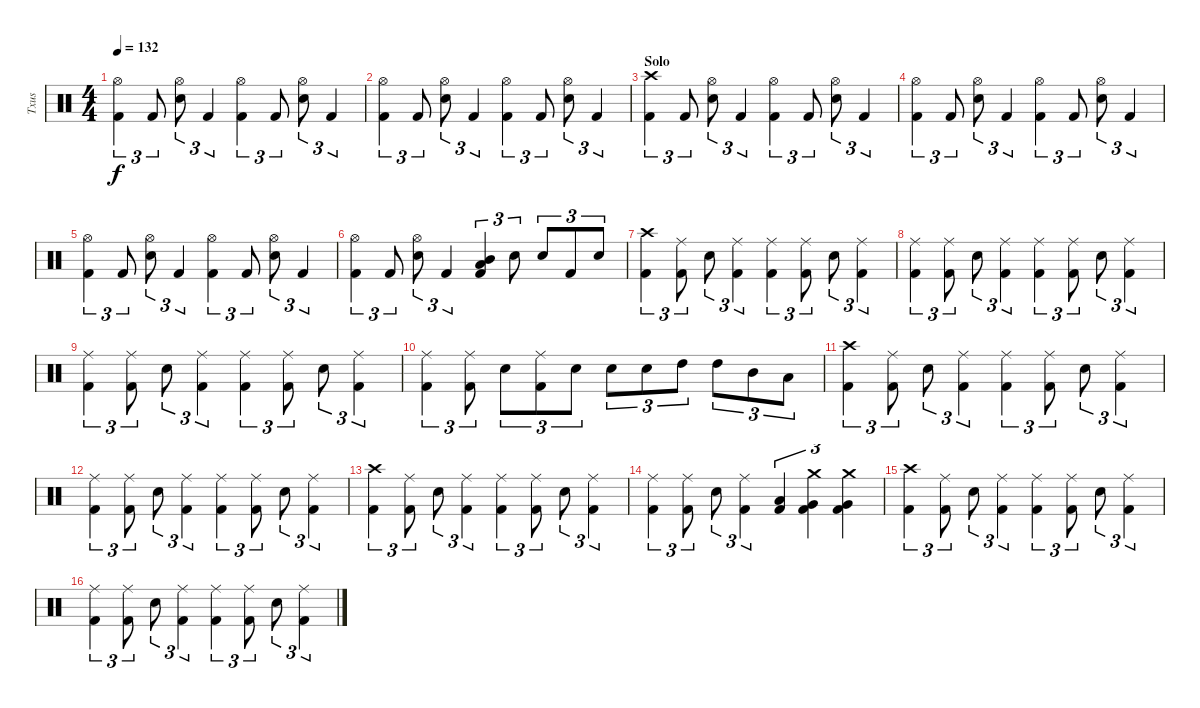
\track ("Txus" "Txus") {instrument percussion}
\staff {score}
\articulation defaults
\ts (4 4)
\tempo 132
\clef neutral
\ks c
("Kick (hit) 2" "Hi-Hat (open)").4{tu (3 2) dy f} "Kick (hit) 2".8{tu (3 2)} ("Electric Snare (hit)" "Hi-Hat (open)").8{tu (3 2)} "Kick (hit) 2".4{tu (3 2)} ("Kick (hit) 2" "Hi-Hat (open)").4{tu (3 2)} "Kick (hit) 2".8{tu (3 2)} ("Electric Snare (hit)" "Hi-Hat (open)").8{tu (3 2)} "Kick (hit) 2".4{tu (3 2)} |
("Kick (hit) 2" "Hi-Hat (open)").4{tu (3 2)} "Kick (hit) 2".8{tu (3 2)} ("Electric Snare (hit)" "Hi-Hat (open)").8{tu (3 2)} "Kick (hit) 2".4{tu (3 2)} ("Kick (hit) 2" "Hi-Hat (open)").4{tu (3 2)} "Kick (hit) 2".8{tu (3 2)} ("Electric Snare (hit)" "Hi-Hat (open)").8{tu (3 2)} "Kick (hit) 2".4{tu (3 2)} |
\section ("" "Solo")
("Kick (hit) 2" "Crash high (hit)").4{tu (3 2)} "Kick (hit) 2".8{tu (3 2)} ("Electric Snare (hit)" "Hi-Hat (open)").8{tu (3 2)} "Kick (hit) 2".4{tu (3 2)} ("Kick (hit) 2" "Hi-Hat (open)").4{tu (3 2)} "Kick (hit) 2".8{tu (3 2)} ("Electric Snare (hit)" "Hi-Hat (open)").8{tu (3 2)} "Kick (hit) 2".4{tu (3 2)} |
("Kick (hit) 2" "Hi-Hat (open)").4{tu (3 2)} "Kick (hit) 2".8{tu (3 2)} ("Electric Snare (hit)" "Hi-Hat (open)").8{tu (3 2)} "Kick (hit) 2".4{tu (3 2)} ("Kick (hit) 2" "Hi-Hat (open)").4{tu (3 2)} "Kick (hit) 2".8{tu (3 2)} ("Electric Snare (hit)" "Hi-Hat (open)").8{tu (3 2)} "Kick (hit) 2".4{tu (3 2)} |
("Kick (hit) 2" "Hi-Hat (open)").4{tu (3 2)} "Kick (hit) 2".8{tu (3 2)} ("Electric Snare (hit)" "Hi-Hat (open)").8{tu (3 2)} "Kick (hit) 2".4{tu (3 2)} ("Kick (hit) 2" "Hi-Hat (open)").4{tu (3 2)} "Kick (hit) 2".8{tu (3 2)} ("Electric Snare (hit)" "Hi-Hat (open)").8{tu (3 2)} "Kick (hit) 2".4{tu (3 2)} |
("Kick (hit) 2" "Hi-Hat (open)").4{tu (3 2)} "Kick (hit) 2".8{tu (3 2)} ("Electric Snare (hit)" "Hi-Hat (open)").8{tu (3 2)} "Kick (hit) 2".4{tu (3 2)} ("Kick (hit) 2" "Mid Tom (hit)" "Low Tom (hit)").4{tu (3 2)} "Electric Snare (hit)".8{tu (3 2)} "Electric Snare (hit)".8{tu (3 2)} "Kick (hit) 2".8{tu (3 2)} "Electric Snare (hit)".8{tu (3 2)} |
("Kick (hit) 2" "Crash high (hit)").4{tu (3 2)} ("Kick (hit) 2" "Ride (middle)").8{tu (3 2)} "Electric Snare (hit)".8{tu (3 2)} ("Kick (hit) 2" "Ride (middle)").4{tu (3 2)} ("Kick (hit) 2" "Ride (middle)").4{tu (3 2)} ("Kick (hit) 2" "Ride (middle)").8{tu (3 2)} "Electric Snare (hit)".8{tu (3 2)} ("Kick (hit) 2" "Ride (middle)").4{tu (3 2)} |
("Kick (hit) 2" "Ride (middle)").4{tu (3 2)} ("Kick (hit) 2" "Ride (middle)").8{tu (3 2)} "Electric Snare (hit)".8{tu (3 2)} ("Kick (hit) 2" "Ride (middle)").4{tu (3 2)} ("Kick (hit) 2" "Ride (middle)").4{tu (3 2)} ("Kick (hit) 2" "Ride (middle)").8{tu (3 2)} "Electric Snare (hit)".8{tu (3 2)} ("Kick (hit) 2" "Ride (middle)").4{tu (3 2)} |
("Kick (hit) 2" "Ride (middle)").4{tu (3 2)} ("Kick (hit) 2" "Ride (middle)").8{tu (3 2)} "Electric Snare (hit)".8{tu (3 2)} ("Kick (hit) 2" "Ride (middle)").4{tu (3 2)} ("Kick (hit) 2" "Ride (middle)").4{tu (3 2)} ("Kick (hit) 2" "Ride (middle)").8{tu (3 2)} "Electric Snare (hit)".8{tu (3 2)} ("Kick (hit) 2" "Ride (middle)").4{tu (3 2)} |
("Kick (hit) 2" "Ride (middle)").4{tu (3 2)} ("Kick (hit) 2" "Ride (middle)").8{tu (3 2)} "Electric Snare (hit)".8{tu (3 2)} ("Kick (hit) 2" "Ride (middle)").8{tu (3 2)} "Electric Snare (hit)".8{tu (3 2)} "Electric Snare (hit)".8{tu (3 2)} "Electric Snare (hit)".8{tu (3 2)} "High Tom (hit)".8{tu (3 2)} "High Tom (hit)".8{tu (3 2)} "Mid Tom (hit)".8{tu (3 2)} "Low Tom (hit)".8{tu (3 2)} |
("Kick (hit) 2" "Crash high (hit)").4{tu (3 2)} ("Kick (hit) 2" "Ride (middle)").8{tu (3 2)} "Electric Snare (hit)".8{tu (3 2)} ("Kick (hit) 2" "Ride (middle)").4{tu (3 2)} ("Kick (hit) 2" "Ride (middle)").4{tu (3 2)} ("Kick (hit) 2" "Ride (middle)").8{tu (3 2)} "Electric Snare (hit)".8{tu (3 2)} ("Kick (hit) 2" "Ride (middle)").4{tu (3 2)} |
("Kick (hit) 2" "Ride (middle)").4{tu (3 2)} ("Kick (hit) 2" "Ride (middle)").8{tu (3 2)} "Electric Snare (hit)".8{tu (3 2)} ("Kick (hit) 2" "Ride (middle)").4{tu (3 2)} ("Kick (hit) 2" "Ride (middle)").4{tu (3 2)} ("Kick (hit) 2" "Ride (middle)").8{tu (3 2)} "Electric Snare (hit)".8{tu (3 2)} ("Kick (hit) 2" "Ride (middle)").4{tu (3 2)} |
("Kick (hit) 2" "Crash high (hit)").4{tu (3 2)} ("Kick (hit) 2" "Ride (middle)").8{tu (3 2)} "Electric Snare (hit)".8{tu (3 2)} ("Kick (hit) 2" "Ride (middle)").4{tu (3 2)} ("Kick (hit) 2" "Ride (middle)").4{tu (3 2)} ("Kick (hit) 2" "Ride (middle)").8{tu (3 2)} "Electric Snare (hit)".8{tu (3 2)} ("Kick (hit) 2" "Ride (middle)").4{tu (3 2)} |
("Kick (hit) 2" "Ride (middle)").4{tu (3 2)} ("Kick (hit) 2" "Ride (middle)").8{tu (3 2)} "Electric Snare (hit)".8{tu (3 2)} ("Kick (hit) 2" "Ride (middle)").4{tu (3 2)} ("Kick (hit) 2" "Low Tom (hit)").4{tu (3 2)} ("Kick (hit) 2" "Very Low Tom (hit)" "Crash medium (hit)").4{tu (3 2)} ("Kick (hit) 2" "Very Low Tom (hit)" "Crash medium (hit)").4{tu (3 2)} |
("Kick (hit) 2" "Crash high (hit)").4{tu (3 2)} ("Kick (hit) 2" "Ride (middle)").8{tu (3 2)} "Electric Snare (hit)".8{tu (3 2)} ("Kick (hit) 2" "Ride (middle)").4{tu (3 2)} ("Kick (hit) 2" "Ride (middle)").4{tu (3 2)} ("Kick (hit) 2" "Ride (middle)").8{tu (3 2)} "Electric Snare (hit)".8{tu (3 2)} ("Kick (hit) 2" "Ride (middle)").4{tu (3 2)} |
("Kick (hit) 2" "Ride (middle)").4{tu (3 2)} ("Kick (hit) 2" "Ride (middle)").8{tu (3 2)} "Electric Snare (hit)".8{tu (3 2)} ("Kick (hit) 2" "Ride (middle)").4{tu (3 2)} ("Kick (hit) 2" "Ride (middle)").4{tu (3 2)} ("Kick (hit) 2" "Ride (middle)").8{tu (3 2)} "Electric Snare (hit)".8{tu (3 2)} ("Kick (hit) 2" "Ride (middle)").4{tu (3 2)}
